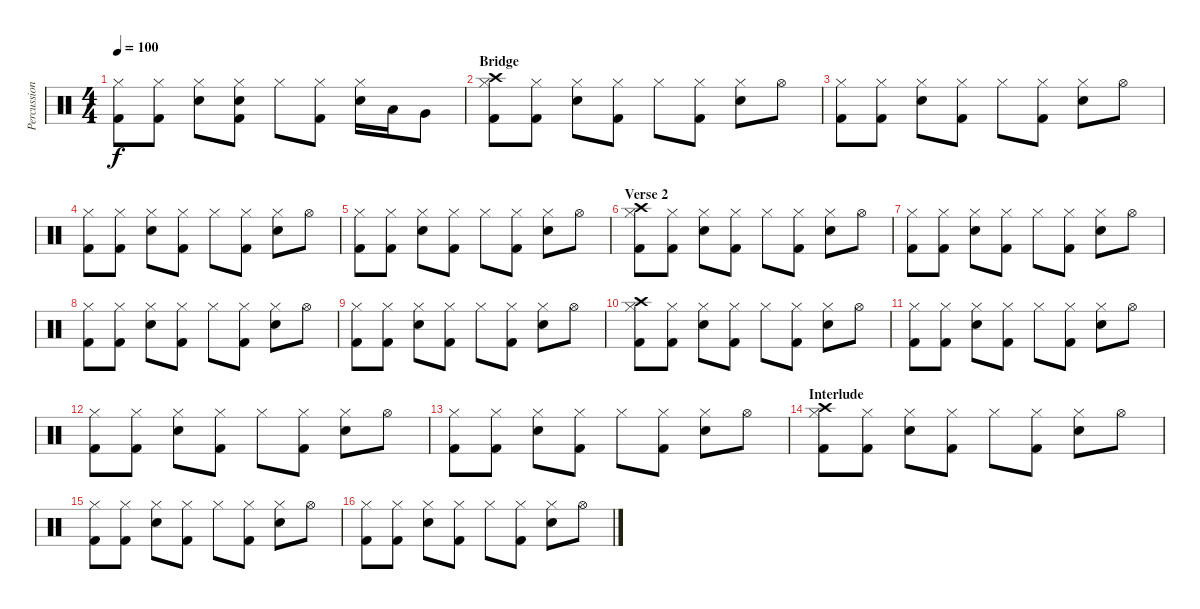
\track ("Percussion" "Percussion") {instrument percussion}
\staff {score}
\articulation defaults
\ts (4 4)
\tempo 100
\clef neutral
\ks c
("Hi-Hat (closed)" "Kick (hit) 2").8{dy f} ("Hi-Hat (closed)" "Kick (hit) 2").8 ("Hi-Hat (closed)" "Electric Snare (hit)").8 ("Hi-Hat (closed)" "Electric Snare (hit)" "Kick (hit) 2").8 "Hi-Hat (closed)".8 ("Hi-Hat (closed)" "Kick (hit) 2").8 ("Hi-Hat (closed)" "Electric Snare (hit)").16 "Low Tom (hit)".16 "Very Low Tom (hit)".8 |
\section ("" "Bridge")
("Crash high (hit)" "Hi-Hat (closed)" "Kick (hit) 2").8 ("Hi-Hat (closed)" "Kick (hit) 2").8 ("Hi-Hat (closed)" "Electric Snare (hit)").8 ("Hi-Hat (closed)" "Kick (hit) 2").8 "Hi-Hat (closed)".8 ("Hi-Hat (closed)" "Kick (hit) 2").8 ("Hi-Hat (closed)" "Electric Snare (hit)").8 "Hi-Hat (open)".8 |
("Hi-Hat (closed)" "Kick (hit) 2").8 ("Hi-Hat (closed)" "Kick (hit) 2").8 ("Hi-Hat (closed)" "Electric Snare (hit)").8 ("Hi-Hat (closed)" "Kick (hit) 2").8 "Hi-Hat (closed)".8 ("Hi-Hat (closed)" "Kick (hit) 2").8 ("Hi-Hat (closed)" "Electric Snare (hit)").8 "Hi-Hat (open)".8 |
("Hi-Hat (closed)" "Kick (hit) 2").8 ("Hi-Hat (closed)" "Kick (hit) 2").8 ("Hi-Hat (closed)" "Electric Snare (hit)").8 ("Hi-Hat (closed)" "Kick (hit) 2").8 "Hi-Hat (closed)".8 ("Hi-Hat (closed)" "Kick (hit) 2").8 ("Hi-Hat (closed)" "Electric Snare (hit)").8 "Hi-Hat (open)".8 |
("Hi-Hat (closed)" "Kick (hit) 2").8 ("Hi-Hat (closed)" "Kick (hit) 2").8 ("Hi-Hat (closed)" "Electric Snare (hit)").8 ("Hi-Hat (closed)" "Kick (hit) 2").8 "Hi-Hat (closed)".8 ("Hi-Hat (closed)" "Kick (hit) 2").8 ("Hi-Hat (closed)" "Electric Snare (hit)").8 "Hi-Hat (open)".8 |
\section ("" "Verse 2")
("Crash high (hit)" "Hi-Hat (closed)" "Kick (hit) 2").8 ("Hi-Hat (closed)" "Kick (hit) 2").8 ("Hi-Hat (closed)" "Electric Snare (hit)").8 ("Hi-Hat (closed)" "Kick (hit) 2").8 "Hi-Hat (closed)".8 ("Hi-Hat (closed)" "Kick (hit) 2").8 ("Hi-Hat (closed)" "Electric Snare (hit)").8 "Hi-Hat (open)".8 |
("Hi-Hat (closed)" "Kick (hit) 2").8 ("Hi-Hat (closed)" "Kick (hit) 2").8 ("Hi-Hat (closed)" "Electric Snare (hit)").8 ("Hi-Hat (closed)" "Kick (hit) 2").8 "Hi-Hat (closed)".8 ("Hi-Hat (closed)" "Kick (hit) 2").8 ("Hi-Hat (closed)" "Electric Snare (hit)").8 "Hi-Hat (open)".8 |
("Hi-Hat (closed)" "Kick (hit) 2").8 ("Hi-Hat (closed)" "Kick (hit) 2").8 ("Hi-Hat (closed)" "Electric Snare (hit)").8 ("Hi-Hat (closed)" "Kick (hit) 2").8 "Hi-Hat (closed)".8 ("Hi-Hat (closed)" "Kick (hit) 2").8 ("Hi-Hat (closed)" "Electric Snare (hit)").8 "Hi-Hat (open)".8 |
("Hi-Hat (closed)" "Kick (hit) 2").8 ("Hi-Hat (closed)" "Kick (hit) 2").8 ("Hi-Hat (closed)" "Electric Snare (hit)").8 ("Hi-Hat (closed)" "Kick (hit) 2").8 "Hi-Hat (closed)".8 ("Hi-Hat (closed)" "Kick (hit) 2").8 ("Hi-Hat (closed)" "Electric Snare (hit)").8 "Hi-Hat (open)".8 |
("Crash high (hit)" "Hi-Hat (closed)" "Kick (hit) 2").8 ("Hi-Hat (closed)" "Kick (hit) 2").8 ("Hi-Hat (closed)" "Electric Snare (hit)").8 ("Hi-Hat (closed)" "Kick (hit) 2").8 "Hi-Hat (closed)".8 ("Hi-Hat (closed)" "Kick (hit) 2").8 ("Hi-Hat (closed)" "Electric Snare (hit)").8 "Hi-Hat (open)".8 |
("Hi-Hat (closed)" "Kick (hit) 2").8 ("Hi-Hat (closed)" "Kick (hit) 2").8 ("Hi-Hat (closed)" "Electric Snare (hit)").8 ("Hi-Hat (closed)" "Kick (hit) 2").8 "Hi-Hat (closed)".8 ("Hi-Hat (closed)" "Kick (hit) 2").8 ("Hi-Hat (closed)" "Electric Snare (hit)").8 "Hi-Hat (open)".8 |
("Hi-Hat (closed)" "Kick (hit) 2").8 ("Hi-Hat (closed)" "Kick (hit) 2").8 ("Hi-Hat (closed)" "Electric Snare (hit)").8 ("Hi-Hat (closed)" "Kick (hit) 2").8 "Hi-Hat (closed)".8 ("Hi-Hat (closed)" "Kick (hit) 2").8 ("Hi-Hat (closed)" "Electric Snare (hit)").8 "Hi-Hat (open)".8 |
("Hi-Hat (closed)" "Kick (hit) 2").8 ("Hi-Hat (closed)" "Kick (hit) 2").8 ("Hi-Hat (closed)" "Electric Snare (hit)").8 ("Hi-Hat (closed)" "Kick (hit) 2").8 "Hi-Hat (closed)".8 ("Hi-Hat (closed)" "Kick (hit) 2").8 ("Hi-Hat (closed)" "Electric Snare (hit)").8 "Hi-Hat (open)".8 |
\section ("" "Interlude")
("Crash high (hit)" "Hi-Hat (closed)" "Kick (hit) 2").8 ("Hi-Hat (closed)" "Kick (hit) 2").8 ("Hi-Hat (closed)" "Electric Snare (hit)").8 ("Hi-Hat (closed)" "Kick (hit) 2").8 "Hi-Hat (closed)".8 ("Hi-Hat (closed)" "Kick (hit) 2").8 ("Hi-Hat (closed)" "Electric Snare (hit)").8 "Hi-Hat (open)".8 |
("Hi-Hat (closed)" "Kick (hit) 2").8 ("Hi-Hat (closed)" "Kick (hit) 2").8 ("Hi-Hat (closed)" "Electric Snare (hit)").8 ("Hi-Hat (closed)" "Kick (hit) 2").8 "Hi-Hat (closed)".8 ("Hi-Hat (closed)" "Kick (hit) 2").8 ("Hi-Hat (closed)" "Electric Snare (hit)").8 "Hi-Hat (open)".8 |
("Hi-Hat (closed)" "Kick (hit) 2").8 ("Hi-Hat (closed)" "Kick (hit) 2").8 ("Hi-Hat (closed)" "Electric Snare (hit)").8 ("Hi-Hat (closed)" "Kick (hit) 2").8 "Hi-Hat (closed)".8 ("Hi-Hat (closed)" "Kick (hit) 2").8 ("Hi-Hat (closed)" "Electric Snare (hit)").8 "Hi-Hat (open)".8
